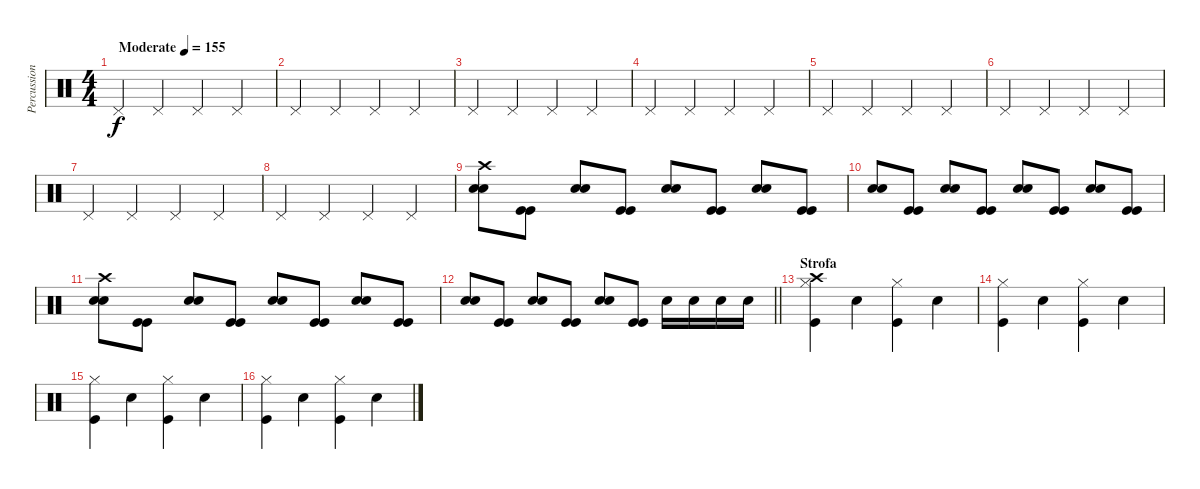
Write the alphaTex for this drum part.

\track ("Percussioni" "Percussion") {instrument percussion}
\staff {score}
\articulation defaults
\ts (4 4)
\tempo (155 "Moderate")
\clef neutral
\ks c "Pedal Hi-Hat (hit)".4{dy f} "Pedal Hi-Hat (hit)".4 "Pedal Hi-Hat (hit)".4 "Pedal Hi-Hat (hit)".4
|
"Pedal Hi-Hat (hit)".4 "Pedal Hi-Hat (hit)".4 "Pedal Hi-Hat (hit)".4 "Pedal Hi-Hat (hit)".4 |
"Pedal Hi-Hat (hit)".4 "Pedal Hi-Hat (hit)".4 "Pedal Hi-Hat (hit)".4 "Pedal Hi-Hat (hit)".4 |
"Pedal Hi-Hat (hit)".4 "Pedal Hi-Hat (hit)".4 "Pedal Hi-Hat (hit)".4 "Pedal Hi-Hat (hit)".4 |
"Pedal Hi-Hat (hit)".4 "Pedal Hi-Hat (hit)".4 "Pedal Hi-Hat (hit)".4 "Pedal Hi-Hat (hit)".4 |
"Pedal Hi-Hat (hit)".4 "Pedal Hi-Hat (hit)".4 "Pedal Hi-Hat (hit)".4 "Pedal Hi-Hat (hit)".4 |
"Pedal Hi-Hat (hit)".4 "Pedal Hi-Hat (hit)".4 "Pedal Hi-Hat (hit)".4 "Pedal Hi-Hat (hit)".4 |
"Pedal Hi-Hat (hit)".4 "Pedal Hi-Hat (hit)".4 "Pedal Hi-Hat (hit)".4 "Pedal Hi-Hat (hit)".4 |
("Snare (hit) 2" "Snare (hit) 2" "Crash high (hit)").8 ("Kick (hit)" "Kick (hit)").8 ("Snare (hit) 2" "Snare (hit) 2").8 ("Kick (hit)" "Kick (hit)").8 ("Snare (hit) 2" "Snare (hit) 2").8 ("Kick (hit)" "Kick (hit)").8 ("Snare (hit) 2" "Snare (hit) 2").8 ("Kick (hit)" "Kick (hit)").8 |
("Snare (hit) 2" "Snare (hit) 2").8 ("Kick (hit)" "Kick (hit)").8 ("Snare (hit) 2" "Snare (hit) 2").8 ("Kick (hit)" "Kick (hit)").8 ("Snare (hit) 2" "Snare (hit) 2").8 ("Kick (hit)" "Kick (hit)").8 ("Snare (hit) 2" "Snare (hit) 2").8 ("Kick (hit)" "Kick (hit)").8 |
("Snare (hit) 2" "Snare (hit) 2" "Crash high (hit)").8 ("Kick (hit)" "Kick (hit)").8 ("Snare (hit) 2" "Snare (hit) 2").8 ("Kick (hit)" "Kick (hit)").8 ("Snare (hit) 2" "Snare (hit) 2").8 ("Kick (hit)" "Kick (hit)").8 ("Snare (hit) 2" "Snare (hit) 2").8 ("Kick (hit)" "Kick (hit)").8 |
\barLineRight lightlight
("Snare (hit) 2" "Snare (hit) 2").8 ("Kick (hit)" "Kick (hit)").8 ("Snare (hit) 2" "Snare (hit) 2").8 ("Kick (hit)" "Kick (hit)").8 ("Snare (hit) 2" "Snare (hit) 2").8 ("Kick (hit)" "Kick (hit)").8 "Snare (hit) 2".16 "Snare (hit) 2".16 "Snare (hit) 2".16 "Snare (hit) 2".16 |
\section ("" "Strofa")
("Hi-Hat (closed)" "Kick (hit)" "Crash high (hit)").4 "Snare (hit) 2".4 ("Hi-Hat (closed)" "Kick (hit)").4 "Snare (hit) 2".4 |
("Hi-Hat (closed)" "Kick (hit)").4 "Snare (hit) 2".4 ("Hi-Hat (closed)" "Kick (hit)").4 "Snare (hit) 2".4 |
("Hi-Hat (closed)" "Kick (hit)").4 "Snare (hit) 2".4 ("Hi-Hat (closed)" "Kick (hit)").4 "Snare (hit) 2".4 |
("Hi-Hat (closed)" "Kick (hit)").4 "Snare (hit) 2".4 ("Hi-Hat (closed)" "Kick (hit)").4 "Snare (hit) 2".4
